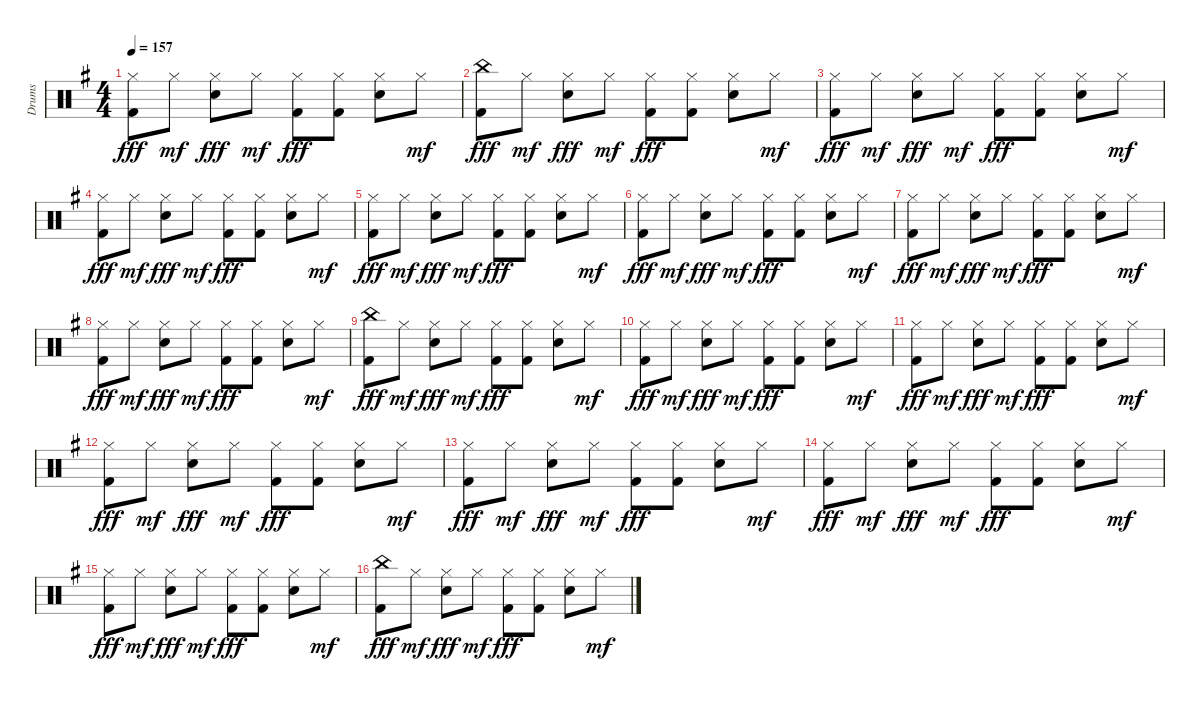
\track ("Drums" "Drums") {instrument percussion}
\staff {score}
\articulation defaults
\ts (4 4)
\tempo 157
\clef neutral
\ks g
("Hi-Hat (closed)" "Kick (hit) 2").8{dy fff} "Hi-Hat (closed)".8{dy mf} ("Electric Snare (hit)" "Hi-Hat (closed)").8{dy fff} "Hi-Hat (closed)".8{dy mf} ("Hi-Hat (closed)" "Kick (hit) 2").8{dy fff} ("Hi-Hat (closed)" "Kick (hit) 2").8 ("Electric Snare (hit)" "Hi-Hat (closed)").8 "Hi-Hat (closed)".8{dy mf} |
("China (hit)" "Kick (hit) 2").8{dy fff} "Hi-Hat (closed)".8{dy mf} ("Electric Snare (hit)" "Hi-Hat (closed)").8{dy fff} "Hi-Hat (closed)".8{dy mf} ("Hi-Hat (closed)" "Kick (hit) 2").8{dy fff} ("Hi-Hat (closed)" "Kick (hit) 2").8 ("Electric Snare (hit)" "Hi-Hat (closed)").8 "Hi-Hat (closed)".8{dy mf} |
("Hi-Hat (closed)" "Kick (hit) 2").8{dy fff} "Hi-Hat (closed)".8{dy mf} ("Electric Snare (hit)" "Hi-Hat (closed)").8{dy fff} "Hi-Hat (closed)".8{dy mf} ("Hi-Hat (closed)" "Kick (hit) 2").8{dy fff} ("Hi-Hat (closed)" "Kick (hit) 2").8 ("Electric Snare (hit)" "Hi-Hat (closed)").8 "Hi-Hat (closed)".8{dy mf} |
("Hi-Hat (closed)" "Kick (hit) 2").8{dy fff} "Hi-Hat (closed)".8{dy mf} ("Electric Snare (hit)" "Hi-Hat (closed)").8{dy fff} "Hi-Hat (closed)".8{dy mf} ("Hi-Hat (closed)" "Kick (hit) 2").8{dy fff} ("Hi-Hat (closed)" "Kick (hit) 2").8 ("Electric Snare (hit)" "Hi-Hat (closed)").8 "Hi-Hat (closed)".8{dy mf} |
("Hi-Hat (closed)" "Kick (hit) 2").8{dy fff} "Hi-Hat (closed)".8{dy mf} ("Electric Snare (hit)" "Hi-Hat (closed)").8{dy fff} "Hi-Hat (closed)".8{dy mf} ("Hi-Hat (closed)" "Kick (hit) 2").8{dy fff} ("Hi-Hat (closed)" "Kick (hit) 2").8 ("Electric Snare (hit)" "Hi-Hat (closed)").8 "Hi-Hat (closed)".8{dy mf} |
("Hi-Hat (closed)" "Kick (hit) 2").8{dy fff} "Hi-Hat (closed)".8{dy mf} ("Electric Snare (hit)" "Hi-Hat (closed)").8{dy fff} "Hi-Hat (closed)".8{dy mf} ("Hi-Hat (closed)" "Kick (hit) 2").8{dy fff} ("Hi-Hat (closed)" "Kick (hit) 2").8 ("Electric Snare (hit)" "Hi-Hat (closed)").8 "Hi-Hat (closed)".8{dy mf} |
("Hi-Hat (closed)" "Kick (hit) 2").8{dy fff} "Hi-Hat (closed)".8{dy mf} ("Electric Snare (hit)" "Hi-Hat (closed)").8{dy fff} "Hi-Hat (closed)".8{dy mf} ("Hi-Hat (closed)" "Kick (hit) 2").8{dy fff} ("Hi-Hat (closed)" "Kick (hit) 2").8 ("Electric Snare (hit)" "Hi-Hat (closed)").8 "Hi-Hat (closed)".8{dy mf} |
("Hi-Hat (closed)" "Kick (hit) 2").8{dy fff} "Hi-Hat (closed)".8{dy mf} ("Electric Snare (hit)" "Hi-Hat (closed)").8{dy fff} "Hi-Hat (closed)".8{dy mf} ("Hi-Hat (closed)" "Kick (hit) 2").8{dy fff} ("Hi-Hat (closed)" "Kick (hit) 2").8 ("Electric Snare (hit)" "Hi-Hat (closed)").8 "Hi-Hat (closed)".8{dy mf} |
("China (hit)" "Kick (hit) 2").8{dy fff} "Hi-Hat (closed)".8{dy mf} ("Electric Snare (hit)" "Hi-Hat (closed)").8{dy fff} "Hi-Hat (closed)".8{dy mf} ("Hi-Hat (closed)" "Kick (hit) 2").8{dy fff} ("Hi-Hat (closed)" "Kick (hit) 2").8 ("Electric Snare (hit)" "Hi-Hat (closed)").8 "Hi-Hat (closed)".8{dy mf} |
("Hi-Hat (closed)" "Kick (hit) 2").8{dy fff} "Hi-Hat (closed)".8{dy mf} ("Electric Snare (hit)" "Hi-Hat (closed)").8{dy fff} "Hi-Hat (closed)".8{dy mf} ("Hi-Hat (closed)" "Kick (hit) 2").8{dy fff} ("Hi-Hat (closed)" "Kick (hit) 2").8 ("Electric Snare (hit)" "Hi-Hat (closed)").8 "Hi-Hat (closed)".8{dy mf} |
("Hi-Hat (closed)" "Kick (hit) 2").8{dy fff} "Hi-Hat (closed)".8{dy mf} ("Electric Snare (hit)" "Hi-Hat (closed)").8{dy fff} "Hi-Hat (closed)".8{dy mf} ("Hi-Hat (closed)" "Kick (hit) 2").8{dy fff} ("Hi-Hat (closed)" "Kick (hit) 2").8 ("Electric Snare (hit)" "Hi-Hat (closed)").8 "Hi-Hat (closed)".8{dy mf} |
("Hi-Hat (closed)" "Kick (hit) 2").8{dy fff} "Hi-Hat (closed)".8{dy mf} ("Electric Snare (hit)" "Hi-Hat (closed)").8{dy fff} "Hi-Hat (closed)".8{dy mf} ("Hi-Hat (closed)" "Kick (hit) 2").8{dy fff} ("Hi-Hat (closed)" "Kick (hit) 2").8 ("Electric Snare (hit)" "Hi-Hat (closed)").8 "Hi-Hat (closed)".8{dy mf} |
("Hi-Hat (closed)" "Kick (hit) 2").8{dy fff} "Hi-Hat (closed)".8{dy mf} ("Electric Snare (hit)" "Hi-Hat (closed)").8{dy fff} "Hi-Hat (closed)".8{dy mf} ("Hi-Hat (closed)" "Kick (hit) 2").8{dy fff} ("Hi-Hat (closed)" "Kick (hit) 2").8 ("Electric Snare (hit)" "Hi-Hat (closed)").8 "Hi-Hat (closed)".8{dy mf} |
("Hi-Hat (closed)" "Kick (hit) 2").8{dy fff} "Hi-Hat (closed)".8{dy mf} ("Electric Snare (hit)" "Hi-Hat (closed)").8{dy fff} "Hi-Hat (closed)".8{dy mf} ("Hi-Hat (closed)" "Kick (hit) 2").8{dy fff} ("Hi-Hat (closed)" "Kick (hit) 2").8 ("Electric Snare (hit)" "Hi-Hat (closed)").8 "Hi-Hat (closed)".8{dy mf} |
("Hi-Hat (closed)" "Kick (hit) 2").8{dy fff} "Hi-Hat (closed)".8{dy mf} ("Electric Snare (hit)" "Hi-Hat (closed)").8{dy fff} "Hi-Hat (closed)".8{dy mf} ("Hi-Hat (closed)" "Kick (hit) 2").8{dy fff} ("Hi-Hat (closed)" "Kick (hit) 2").8 ("Electric Snare (hit)" "Hi-Hat (closed)").8 "Hi-Hat (closed)".8{dy mf} |
("China (hit)" "Kick (hit) 2").8{dy fff} "Hi-Hat (closed)".8{dy mf} ("Electric Snare (hit)" "Hi-Hat (closed)").8{dy fff} "Hi-Hat (closed)".8{dy mf} ("Hi-Hat (closed)" "Kick (hit) 2").8{dy fff} ("Hi-Hat (closed)" "Kick (hit) 2").8 ("Electric Snare (hit)" "Hi-Hat (closed)").8 "Hi-Hat (closed)".8{dy mf}
